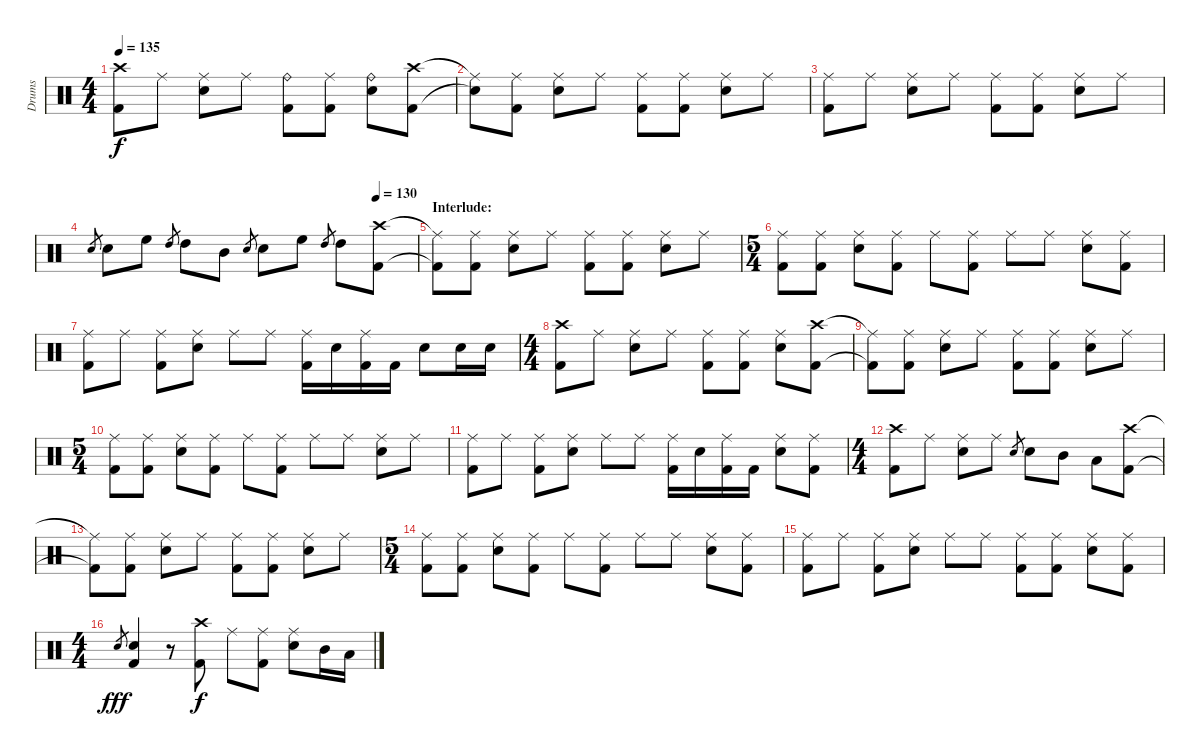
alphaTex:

\track ("Drums" "Drums") {instrument percussion}
\staff {score}
\articulation defaults
\ts (4 4)
\tempo 135
\clef neutral
\ks c
("Crash high (hit)" "Kick (hit) 2").8{dy f} "Ride (middle)".8 ("Ride (middle)" "Electric Snare (hit)").8 "Ride (middle)".8 ("Ride (bell)" "Kick (hit) 2").8 ("Ride (middle)" "Kick (hit) 2").8 ("Ride (bell)" "Electric Snare (hit)").8 ("Crash high (hit)" "Kick (hit) 2").8 |
("Ride (middle)"{t} "Snare (hit)"{t}).8 ("Ride (middle)" "Kick (hit) 2").8 ("Ride (middle)" "Electric Snare (hit)").8 "Ride (middle)".8 ("Ride (middle)" "Kick (hit) 2").8 ("Ride (middle)" "Kick (hit) 2").8 ("Ride (middle)" "Electric Snare (hit)").8 "Ride (middle)".8 |
("Ride (middle)" "Kick (hit) 2").8 "Ride (middle)".8 ("Ride (middle)" "Electric Snare (hit)").8 "Ride (middle)".8 ("Ride (middle)" "Kick (hit) 2").8 ("Ride (middle)" "Kick (hit) 2").8 ("Ride (middle)" "Electric Snare (hit)").8 "Ride (middle)".8 |
\tempo (130 0.875)
"Electric Snare (hit)".8{gr} "Electric Snare (hit)".8 "High Floor Tom (hit)".8 "High Tom (hit)".8{gr} "High Tom (hit)".8 "Mid Tom (hit)".8 "Electric Snare (hit)".8{gr} "Electric Snare (hit)".8 "High Floor Tom (hit)".8 "High Tom (hit)".8{gr} "High Tom (hit)".8 ("Crash high (hit)" "Kick (hit) 2").8 |
\section ("" "Interlude:")
("Ride (middle)"{t} "Kick (hit) 2"{t}).8 ("Ride (middle)" "Kick (hit) 2").8 ("Ride (middle)" "Electric Snare (hit)").8 "Ride (middle)".8 ("Ride (middle)" "Kick (hit) 2").8 ("Ride (middle)" "Kick (hit) 2").8 ("Ride (middle)" "Electric Snare (hit)").8 "Ride (middle)".8 |
\ts (5 4)
("Ride (middle)" "Kick (hit) 2").8 ("Ride (middle)" "Kick (hit) 2").8 ("Ride (middle)" "Electric Snare (hit)").8 ("Ride (middle)" "Kick (hit) 2").8 "Ride (middle)".8 ("Ride (middle)" "Kick (hit) 2").8 "Ride (middle)".8 "Ride (middle)".8 ("Ride (middle)" "Electric Snare (hit)").8 ("Ride (middle)" "Kick (hit) 2").8 |
("Ride (middle)" "Kick (hit) 2").8 "Ride (middle)".8 ("Ride (middle)" "Kick (hit) 2").8 ("Ride (middle)" "Electric Snare (hit)").8 "Ride (middle)".8 "Ride (middle)".8 ("Ride (middle)" "Kick (hit) 2").16 "Electric Snare (hit)".16 ("Ride (middle)" "Kick (hit) 2").16 "Kick (hit) 2".16 "Electric Snare (hit)".8 "Electric Snare (hit)".16 "Electric Snare (hit)".16 |
\ts (4 4)
("Crash high (hit)" "Kick (hit) 2").8 "Ride (middle)".8 ("Ride (middle)" "Electric Snare (hit)").8 "Ride (middle)".8 ("Ride (middle)" "Kick (hit) 2").8 ("Ride (middle)" "Kick (hit) 2").8 ("Ride (middle)" "Electric Snare (hit)").8 ("Crash high (hit)" "Kick (hit) 2").8 |
("Ride (middle)"{t} "Kick (hit) 2"{t}).8 ("Ride (middle)" "Kick (hit) 2").8 ("Ride (middle)" "Electric Snare (hit)").8 "Ride (middle)".8 ("Ride (middle)" "Kick (hit) 2").8 ("Ride (middle)" "Kick (hit) 2").8 ("Ride (middle)" "Electric Snare (hit)").8 "Ride (middle)".8 |
\ts (5 4)
("Ride (middle)" "Kick (hit) 2").8 ("Ride (middle)" "Kick (hit) 2").8 ("Ride (middle)" "Electric Snare (hit)").8 ("Ride (middle)" "Kick (hit) 2").8 "Ride (middle)".8 ("Ride (middle)" "Kick (hit) 2").8 "Ride (middle)".8 "Ride (middle)".8 ("Ride (middle)" "Electric Snare (hit)").8 "Ride (middle)".8 |
("Ride (middle)" "Kick (hit) 2").8 "Ride (middle)".8 ("Ride (middle)" "Kick (hit) 2").8 ("Ride (middle)" "Electric Snare (hit)").8 "Ride (middle)".8 "Ride (middle)".8 ("Ride (middle)" "Kick (hit) 2").16 "Electric Snare (hit)".16 ("Ride (middle)" "Kick (hit) 2").16 "Kick (hit) 2".16 ("Ride (middle)" "Electric Snare (hit)").8 ("Ride (middle)" "Kick (hit) 2").8 |
\ts (4 4)
("Crash high (hit)" "Kick (hit) 2").8 "Ride (middle)".8 ("Ride (middle)" "Electric Snare (hit)").8 "Ride (middle)".8 "Electric Snare (hit)".8{gr} "Electric Snare (hit)".8 "Mid Tom (hit)".8 "Low Tom (hit)".8 ("Crash high (hit)" "Kick (hit) 2").8 |
("Ride (middle)"{t} "Kick (hit) 2"{t}).8 ("Ride (middle)" "Kick (hit) 2").8 ("Ride (middle)" "Electric Snare (hit)").8 "Ride (middle)".8 ("Ride (middle)" "Kick (hit) 2").8 ("Ride (middle)" "Kick (hit) 2").8 ("Ride (middle)" "Electric Snare (hit)").8 "Ride (middle)".8 |
\ts (5 4)
("Ride (middle)" "Kick (hit) 2").8 ("Ride (middle)" "Kick (hit) 2").8 ("Ride (middle)" "Electric Snare (hit)").8 ("Ride (middle)" "Kick (hit) 2").8 "Ride (middle)".8 ("Ride (middle)" "Kick (hit) 2").8 "Ride (middle)".8 "Ride (middle)".8 ("Ride (middle)" "Electric Snare (hit)").8 ("Ride (middle)" "Kick (hit) 2").8 |
("Ride (middle)" "Kick (hit) 2").8 "Ride (middle)".8 ("Ride (middle)" "Kick (hit) 2").8 ("Ride (middle)" "Electric Snare (hit)").8 "Ride (middle)".8 "Ride (middle)".8 ("Ride (middle)" "Kick (hit) 2").8 ("Ride (middle)" "Kick (hit) 2").8 ("Ride (middle)" "Electric Snare (hit)").8 ("Ride (middle)" "Kick (hit) 2").8 |
\ts (4 4)
"Electric Snare (hit)".8{gr dy fff} ("Electric Snare (hit)" "Kick (hit) 2").4 r.8 ("Crash high (hit)" "Kick (hit) 2").8{dy f} "Ride (middle)".8 ("Ride (middle)" "Kick (hit) 2").8 ("Ride (middle)" "Electric Snare (hit)").8 "Mid Tom (hit)".16 "Low Tom (hit)".16
